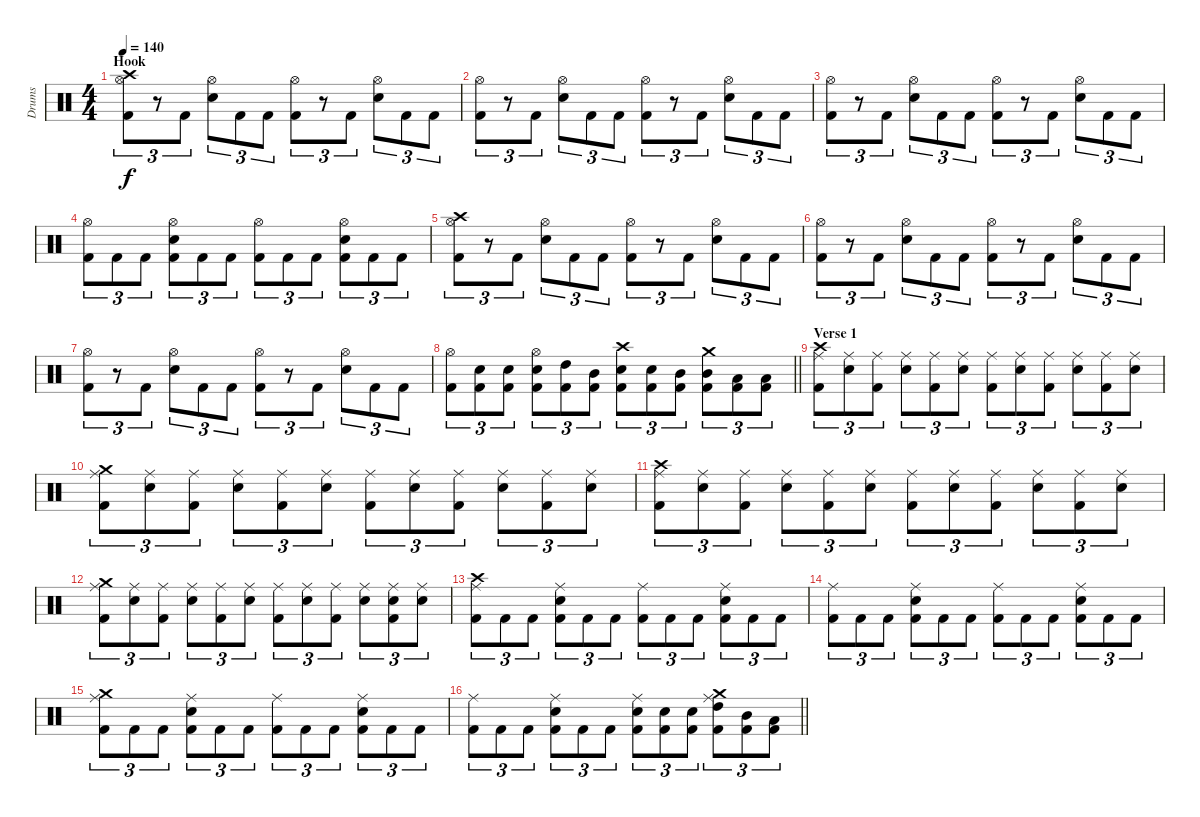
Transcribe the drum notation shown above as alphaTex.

\track ("Drums" "Drums") {instrument percussion}
\staff {score}
\articulation defaults
\ts (4 4)
\section ("" "Hook")
\tempo 140
\clef neutral
\ks c
("Crash high (hit)" "Hi-Hat (open)" "Kick (hit) 2").8{tu (3 2) dy f} r.8{tu (3 2)} "Kick (hit) 2".8{tu (3 2)} ("Hi-Hat (open)" "Snare (hit) 2").8{tu (3 2)} "Kick (hit) 2".8{tu (3 2)} "Kick (hit) 2".8{tu (3 2)} ("Hi-Hat (open)" "Kick (hit) 2").8{tu (3 2)} r.8{tu (3 2)} "Kick (hit) 2".8{tu (3 2)} ("Hi-Hat (open)" "Snare (hit) 2").8{tu (3 2)} "Kick (hit) 2".8{tu (3 2)} "Kick (hit) 2".8{tu (3 2)} |
("Hi-Hat (open)" "Kick (hit) 2").8{tu (3 2)} r.8{tu (3 2)} "Kick (hit) 2".8{tu (3 2)} ("Hi-Hat (open)" "Snare (hit) 2").8{tu (3 2)} "Kick (hit) 2".8{tu (3 2)} "Kick (hit) 2".8{tu (3 2)} ("Hi-Hat (open)" "Kick (hit) 2").8{tu (3 2)} r.8{tu (3 2)} "Kick (hit) 2".8{tu (3 2)} ("Hi-Hat (open)" "Snare (hit) 2").8{tu (3 2)} "Kick (hit) 2".8{tu (3 2)} "Kick (hit) 2".8{tu (3 2)} |
("Hi-Hat (open)" "Kick (hit) 2").8{tu (3 2)} r.8{tu (3 2)} "Kick (hit) 2".8{tu (3 2)} ("Hi-Hat (open)" "Snare (hit) 2").8{tu (3 2)} "Kick (hit) 2".8{tu (3 2)} "Kick (hit) 2".8{tu (3 2)} ("Hi-Hat (open)" "Kick (hit) 2").8{tu (3 2)} r.8{tu (3 2)} "Kick (hit) 2".8{tu (3 2)} ("Hi-Hat (open)" "Snare (hit) 2").8{tu (3 2)} "Kick (hit) 2".8{tu (3 2)} "Kick (hit) 2".8{tu (3 2)} |
("Hi-Hat (open)" "Kick (hit) 2").8{tu (3 2)} "Kick (hit) 2".8{tu (3 2)} "Kick (hit) 2".8{tu (3 2)} ("Hi-Hat (open)" "Snare (hit) 2" "Kick (hit) 2").8{tu (3 2)} "Kick (hit) 2".8{tu (3 2)} "Kick (hit) 2".8{tu (3 2)} ("Hi-Hat (open)" "Kick (hit) 2").8{tu (3 2)} "Kick (hit) 2".8{tu (3 2)} "Kick (hit) 2".8{tu (3 2)} ("Hi-Hat (open)" "Snare (hit) 2" "Kick (hit) 2").8{tu (3 2)} "Kick (hit) 2".8{tu (3 2)} "Kick (hit) 2".8{tu (3 2)} |
("Crash high (hit)" "Hi-Hat (open)" "Kick (hit) 2").8{tu (3 2)} r.8{tu (3 2)} "Kick (hit) 2".8{tu (3 2)} ("Hi-Hat (open)" "Snare (hit) 2").8{tu (3 2)} "Kick (hit) 2".8{tu (3 2)} "Kick (hit) 2".8{tu (3 2)} ("Hi-Hat (open)" "Kick (hit) 2").8{tu (3 2)} r.8{tu (3 2)} "Kick (hit) 2".8{tu (3 2)} ("Hi-Hat (open)" "Snare (hit) 2").8{tu (3 2)} "Kick (hit) 2".8{tu (3 2)} "Kick (hit) 2".8{tu (3 2)} |
("Hi-Hat (open)" "Kick (hit) 2").8{tu (3 2)} r.8{tu (3 2)} "Kick (hit) 2".8{tu (3 2)} ("Hi-Hat (open)" "Snare (hit) 2").8{tu (3 2)} "Kick (hit) 2".8{tu (3 2)} "Kick (hit) 2".8{tu (3 2)} ("Hi-Hat (open)" "Kick (hit) 2").8{tu (3 2)} r.8{tu (3 2)} "Kick (hit) 2".8{tu (3 2)} ("Hi-Hat (open)" "Snare (hit) 2").8{tu (3 2)} "Kick (hit) 2".8{tu (3 2)} "Kick (hit) 2".8{tu (3 2)} |
("Hi-Hat (open)" "Kick (hit) 2").8{tu (3 2)} r.8{tu (3 2)} "Kick (hit) 2".8{tu (3 2)} ("Hi-Hat (open)" "Snare (hit) 2").8{tu (3 2)} "Kick (hit) 2".8{tu (3 2)} "Kick (hit) 2".8{tu (3 2)} ("Hi-Hat (open)" "Kick (hit) 2").8{tu (3 2)} r.8{tu (3 2)} "Kick (hit) 2".8{tu (3 2)} ("Hi-Hat (open)" "Snare (hit) 2").8{tu (3 2)} "Kick (hit) 2".8{tu (3 2)} "Kick (hit) 2".8{tu (3 2)} |
\barLineRight lightlight
("Hi-Hat (open)" "Kick (hit) 2").8{tu (3 2)} ("Snare (hit) 2" "Kick (hit) 2").8{tu (3 2)} ("Snare (hit) 2" "Kick (hit) 2").8{tu (3 2)} ("Hi-Hat (open)" "Snare (hit) 2" "Kick (hit) 2").8{tu (3 2)} ("High Tom (hit)" "Kick (hit) 2").8{tu (3 2)} ("Mid Tom (hit)" "Kick (hit) 2").8{tu (3 2)} ("Crash high (hit)" "Snare (hit) 2" "Kick (hit) 2").8{tu (3 2)} ("Snare (hit) 2" "Kick (hit) 2").8{tu (3 2)} ("Mid Tom (hit)" "Kick (hit) 2").8{tu (3 2)} ("Crash medium (hit)" "Mid Tom (hit)" "Kick (hit) 2").8{tu (3 2)} ("Low Tom (hit)" "Kick (hit) 2").8{tu (3 2)} ("Low Tom (hit)" "Kick (hit) 2").8{tu (3 2)} |
\section ("" "Verse 1")
("Crash high (hit)" "Ride (middle)" "Kick (hit) 2").8{tu (3 2)} ("Ride (middle)" "Snare (hit) 2").8{tu (3 2)} ("Ride (middle)" "Kick (hit) 2").8{tu (3 2)} ("Ride (middle)" "Snare (hit) 2").8{tu (3 2)} ("Ride (middle)" "Kick (hit) 2").8{tu (3 2)} ("Ride (middle)" "Snare (hit) 2").8{tu (3 2)} ("Ride (middle)" "Kick (hit) 2").8{tu (3 2)} ("Ride (middle)" "Snare (hit) 2").8{tu (3 2)} ("Ride (middle)" "Kick (hit) 2").8{tu (3 2)} ("Ride (middle)" "Snare (hit) 2").8{tu (3 2)} ("Ride (middle)" "Kick (hit) 2").8{tu (3 2)} ("Ride (middle)" "Snare (hit) 2").8{tu (3 2)} |
("Crash medium (hit)" "Ride (middle)" "Kick (hit) 2").8{tu (3 2)} ("Ride (middle)" "Snare (hit) 2").8{tu (3 2)} ("Ride (middle)" "Kick (hit) 2").8{tu (3 2)} ("Ride (middle)" "Snare (hit) 2").8{tu (3 2)} ("Ride (middle)" "Kick (hit) 2").8{tu (3 2)} ("Ride (middle)" "Snare (hit) 2").8{tu (3 2)} ("Ride (middle)" "Kick (hit) 2").8{tu (3 2)} ("Ride (middle)" "Snare (hit) 2").8{tu (3 2)} ("Ride (middle)" "Kick (hit) 2").8{tu (3 2)} ("Ride (middle)" "Snare (hit) 2").8{tu (3 2)} ("Ride (middle)" "Kick (hit) 2").8{tu (3 2)} ("Ride (middle)" "Snare (hit) 2").8{tu (3 2)} |
("Crash high (hit)" "Ride (middle)" "Kick (hit) 2").8{tu (3 2)} ("Ride (middle)" "Snare (hit) 2").8{tu (3 2)} ("Ride (middle)" "Kick (hit) 2").8{tu (3 2)} ("Ride (middle)" "Snare (hit) 2").8{tu (3 2)} ("Ride (middle)" "Kick (hit) 2").8{tu (3 2)} ("Ride (middle)" "Snare (hit) 2").8{tu (3 2)} ("Ride (middle)" "Kick (hit) 2").8{tu (3 2)} ("Ride (middle)" "Snare (hit) 2").8{tu (3 2)} ("Ride (middle)" "Kick (hit) 2").8{tu (3 2)} ("Ride (middle)" "Snare (hit) 2").8{tu (3 2)} ("Ride (middle)" "Kick (hit) 2").8{tu (3 2)} ("Ride (middle)" "Snare (hit) 2").8{tu (3 2)} |
("Crash medium (hit)" "Ride (middle)" "Kick (hit) 2").8{tu (3 2)} ("Ride (middle)" "Snare (hit) 2").8{tu (3 2)} ("Ride (middle)" "Kick (hit) 2").8{tu (3 2)} ("Ride (middle)" "Snare (hit) 2").8{tu (3 2)} ("Ride (middle)" "Kick (hit) 2").8{tu (3 2)} ("Ride (middle)" "Snare (hit) 2").8{tu (3 2)} ("Ride (middle)" "Kick (hit) 2").8{tu (3 2)} ("Ride (middle)" "Snare (hit) 2").8{tu (3 2)} ("Ride (middle)" "Kick (hit) 2").8{tu (3 2)} ("Ride (middle)" "Snare (hit) 2").8{tu (3 2)} ("Ride (middle)" "Snare (hit) 2" "Kick (hit) 2").8{tu (3 2)} ("Ride (middle)" "Snare (hit) 2").8{tu (3 2)} |
("Crash high (hit)" "Ride (middle)" "Kick (hit) 2").8{tu (3 2)} "Kick (hit) 2".8{tu (3 2)} "Kick (hit) 2".8{tu (3 2)} ("Ride (middle)" "Snare (hit) 2" "Kick (hit) 2").8{tu (3 2)} "Kick (hit) 2".8{tu (3 2)} "Kick (hit) 2".8{tu (3 2)} ("Ride (middle)" "Kick (hit) 2").8{tu (3 2)} "Kick (hit) 2".8{tu (3 2)} "Kick (hit) 2".8{tu (3 2)} ("Ride (middle)" "Snare (hit) 2" "Kick (hit) 2").8{tu (3 2)} "Kick (hit) 2".8{tu (3 2)} "Kick (hit) 2".8{tu (3 2)} |
("Ride (middle)" "Kick (hit) 2").8{tu (3 2)} "Kick (hit) 2".8{tu (3 2)} "Kick (hit) 2".8{tu (3 2)} ("Ride (middle)" "Snare (hit) 2" "Kick (hit) 2").8{tu (3 2)} "Kick (hit) 2".8{tu (3 2)} "Kick (hit) 2".8{tu (3 2)} ("Ride (middle)" "Kick (hit) 2").8{tu (3 2)} "Kick (hit) 2".8{tu (3 2)} "Kick (hit) 2".8{tu (3 2)} ("Ride (middle)" "Snare (hit) 2" "Kick (hit) 2").8{tu (3 2)} "Kick (hit) 2".8{tu (3 2)} "Kick (hit) 2".8{tu (3 2)} |
("Crash medium (hit)" "Ride (middle)" "Kick (hit) 2").8{tu (3 2)} "Kick (hit) 2".8{tu (3 2)} "Kick (hit) 2".8{tu (3 2)} ("Ride (middle)" "Snare (hit) 2" "Kick (hit) 2").8{tu (3 2)} "Kick (hit) 2".8{tu (3 2)} "Kick (hit) 2".8{tu (3 2)} ("Ride (middle)" "Kick (hit) 2").8{tu (3 2)} "Kick (hit) 2".8{tu (3 2)} "Kick (hit) 2".8{tu (3 2)} ("Ride (middle)" "Snare (hit) 2" "Kick (hit) 2").8{tu (3 2)} "Kick (hit) 2".8{tu (3 2)} "Kick (hit) 2".8{tu (3 2)} |
\barLineRight lightlight
("Ride (middle)" "Kick (hit) 2").8{tu (3 2)} "Kick (hit) 2".8{tu (3 2)} "Kick (hit) 2".8{tu (3 2)} ("Ride (middle)" "Snare (hit) 2" "Kick (hit) 2").8{tu (3 2)} "Kick (hit) 2".8{tu (3 2)} "Kick (hit) 2".8{tu (3 2)} ("Ride (middle)" "Snare (hit) 2" "Kick (hit) 2").8{tu (3 2)} ("Snare (hit) 2" "Kick (hit) 2").8{tu (3 2)} ("Snare (hit) 2" "Kick (hit) 2").8{tu (3 2)} ("Crash medium (hit)" "Ride (middle)" "High Tom (hit)" "Kick (hit) 2").8{tu (3 2)} ("Mid Tom (hit)" "Kick (hit) 2").8{tu (3 2)} ("Low Tom (hit)" "Kick (hit) 2").8{tu (3 2)}
